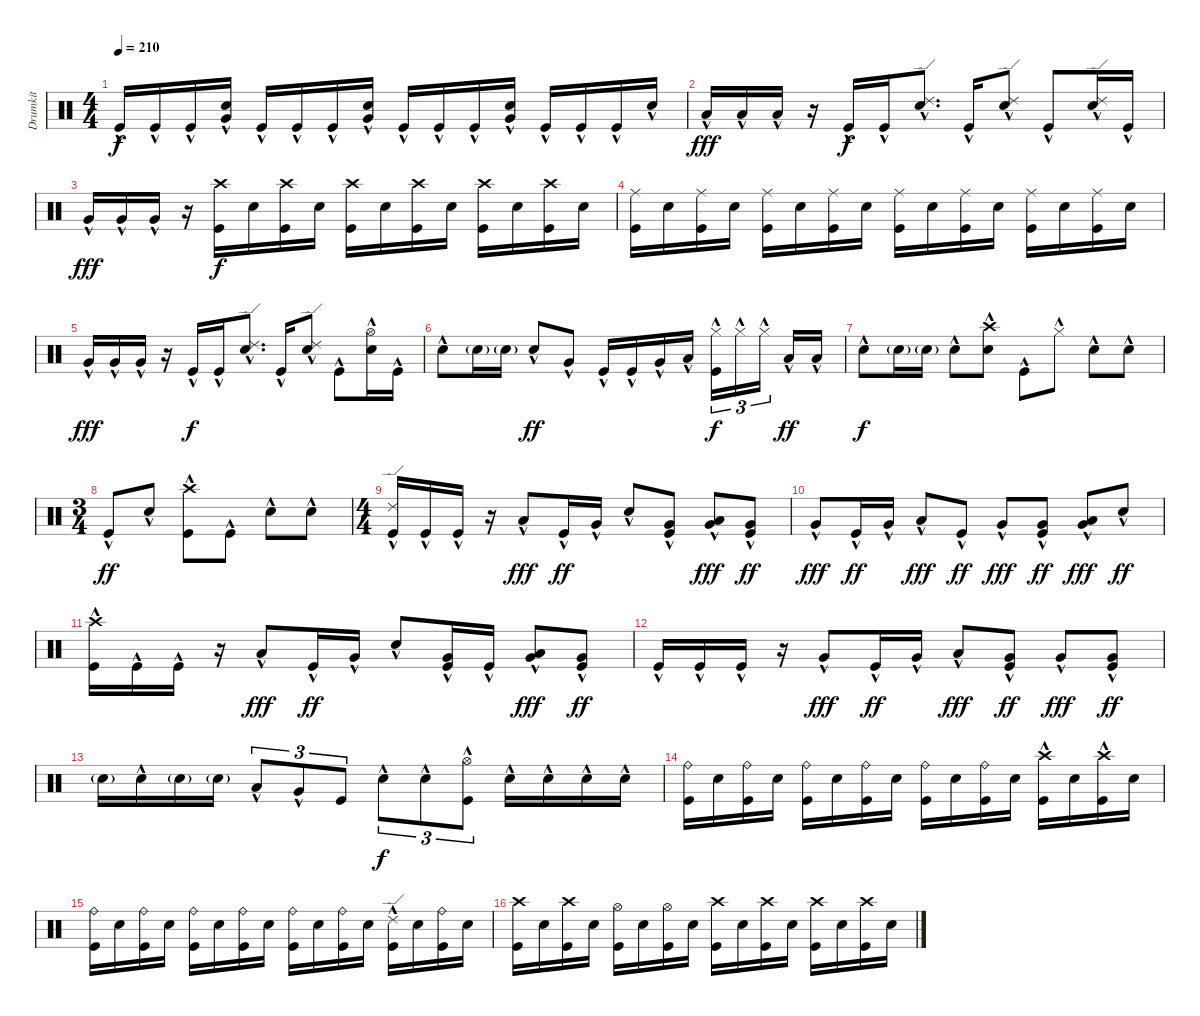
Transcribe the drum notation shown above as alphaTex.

\track ("Drumkit" "Drumkit") {instrument percussion}
\staff {score}
\articulation defaults
\ts (4 4)
\tempo 210
\clef neutral
\ks c "Kick (hit)"{hac}.16{dy f} "Kick (hit)"{hac}.16 "Kick (hit)"{hac}.16
("Snare (hit) 2"{hac} "Very Low Tom (hit)"{hac}).16 "Kick (hit)"{hac}.16 "Kick (hit)"{hac}.16 "Kick (hit)"{hac}.16 ("Snare (hit) 2"{hac} "Very Low Tom (hit)"{hac}).16 "Kick (hit)"{hac}.16 "Kick (hit)"{hac}.16 "Kick (hit)"{hac}.16 ("Snare (hit) 2"{hac} "Very Low Tom (hit)"{hac}).16 "Kick (hit)"{hac}.16 "Kick (hit)"{hac}.16 "Kick (hit)"{hac}.16 "Snare (hit) 2"{hac}.16 |
"Low Tom (hit)"{hac}.16{dy fff} "Low Tom (hit)"{hac}.16 "Low Tom (hit)"{hac}.16 r.16 "Kick (hit)"{hac}.16{dy f} "Kick (hit)"{hac}.16 ("Snare (hit) 2"{hac} "Ride (edge) 2"{hac}).8{d} "Kick (hit)"{hac}.16 ("Snare (hit) 2"{hac} "Ride (edge) 2"{hac}).8 "Kick (hit)"{hac}.8 ("Snare (hit) 2"{hac} "Ride (edge) 2"{hac}).16 "Kick (hit)"{hac}.16 |
"Very Low Tom (hit)"{hac}.16{dy fff} "Very Low Tom (hit)"{hac}.16 "Very Low Tom (hit)"{hac}.16 r.16 ("Kick (hit)" "Crash high (hit)").16{dy f} "Snare (hit) 2".16 ("Kick (hit)" "Crash high (hit)").16 "Snare (hit) 2".16 ("Kick (hit)" "Crash high (hit)").16 "Snare (hit) 2".16 ("Kick (hit)" "Crash high (hit)").16 "Snare (hit) 2".16 ("Kick (hit)" "Crash high (hit)").16 "Snare (hit) 2".16 ("Kick (hit)" "Crash high (hit)").16 "Snare (hit) 2".16 |
("Kick (hit)" "Ride (middle)").16 "Snare (hit) 2".16 ("Kick (hit)" "Ride (middle)").16 "Snare (hit) 2".16 ("Kick (hit)" "Ride (middle)").16 "Snare (hit) 2".16 ("Kick (hit)" "Ride (middle)").16 "Snare (hit) 2".16 ("Kick (hit)" "Ride (middle)").16 "Snare (hit) 2".16 ("Kick (hit)" "Ride (middle)").16 "Snare (hit) 2".16 ("Kick (hit)" "Ride (middle)").16 "Snare (hit) 2".16 ("Kick (hit)" "Ride (middle)").16 "Snare (hit) 2".16 |
"Very Low Tom (hit)"{hac}.16{dy fff} "Very Low Tom (hit)"{hac}.16 "Very Low Tom (hit)"{hac}.16 r.16 "Kick (hit)"{hac}.16{dy f} "Kick (hit)"{hac}.16 ("Snare (hit) 2"{hac} "Ride (edge) 2"{hac}).8{d} "Kick (hit)"{hac}.16 ("Snare (hit) 2"{hac} "Ride (edge) 2"{hac}).8 "Kick (hit)"{hac}.8 ("Snare (hit) 2"{hac} "Hi-Hat (open)"{hac}).16 "Kick (hit)"{hac}.16 |
"Snare (hit) 2"{hac}.8 "Snare (hit) 2"{g}.16 "Snare (hit) 2"{g}.16 "Snare (hit) 2"{hac}.8{dy ff} "Very Low Tom (hit)"{hac}.8 "Kick (hit)"{hac}.16 "Kick (hit)"{hac}.16 "Very Low Tom (hit)"{hac}.16 "Low Tom (hit)"{hac}.16 ("Hi-Hat (closed)"{hac} "Kick (hit)"{hac}).16{tu (3 2) dy f} "Hi-Hat (closed)"{hac}.16{tu (3 2)} "Hi-Hat (closed)"{hac}.16{tu (3 2)} "Low Tom (hit)"{hac}.16{dy ff} "Low Tom (hit)"{hac}.16 |
"Snare (hit) 2"{hac}.8{dy f} "Snare (hit) 2"{g}.16 "Snare (hit) 2"{g}.16 "Snare (hit) 2"{hac}.8 ("Snare (hit) 2"{hac} "Crash high (hit)"{hac}).8 "Kick (hit)"{hac}.8 "Hi-Hat (closed)"{hac}.8 "Snare (hit) 2"{hac}.8 "Snare (hit) 2"{hac}.8 |
\ts (3 4)
"Kick (hit)"{hac}.8{dy ff} "Snare (hit) 2"{hac}.8 ("Kick (hit)"{hac} "Crash high (hit)"{hac}).8 "Kick (hit)"{hac}.8 "Snare (hit) 2"{hac}.8 "Snare (hit) 2"{hac}.8 |
\ts (4 4)
("Kick (hit)"{hac} "Ride (edge) 2"{hac}).16 "Kick (hit)"{hac}.16 "Kick (hit)"{hac}.16 r.16 "Low Tom (hit)"{hac}.8{dy fff} "Kick (hit)"{hac}.16{dy ff} "Very Low Tom (hit)"{hac}.16 "Snare (hit) 2"{hac}.8 ("Kick (hit)"{hac} "Very Low Tom (hit)"{hac}).8 ("Low Tom (hit)"{hac} "Very Low Tom (hit)"{hac}).8{dy fff} ("Kick (hit)"{hac} "Very Low Tom (hit)"{hac}).8{dy ff} |
"Very Low Tom (hit)"{hac}.8{dy fff} "Kick (hit)"{hac}.16{dy ff} "Very Low Tom (hit)"{hac}.16 "Low Tom (hit)"{hac}.8{dy fff} "Kick (hit)"{hac}.8{dy ff} "Very Low Tom (hit)"{hac}.8{dy fff} ("Kick (hit)"{hac} "Very Low Tom (hit)"{hac}).8{dy ff} ("Low Tom (hit)"{hac} "Very Low Tom (hit)"{hac}).8{dy fff} "Snare (hit) 2"{hac}.8{dy ff} |
("Kick (hit)"{hac} "Crash high (hit)"{hac}).16 "Kick (hit)"{hac}.16 "Kick (hit)"{hac}.16 r.16 "Low Tom (hit)"{hac}.8{dy fff} "Kick (hit)"{hac}.16{dy ff} "Very Low Tom (hit)"{hac}.16 "Snare (hit) 2"{hac}.8 ("Kick (hit)"{hac} "Very Low Tom (hit)"{hac}).16 "Kick (hit)"{hac}.16 ("Low Tom (hit)"{hac} "Very Low Tom (hit)"{hac}).8{dy fff} ("Kick (hit)"{hac} "Very Low Tom (hit)"{hac}).8{dy ff} |
"Kick (hit)"{hac}.16 "Kick (hit)"{hac}.16 "Kick (hit)"{hac}.16 r.16 "Very Low Tom (hit)"{hac}.8{dy fff} "Kick (hit)"{hac}.16{dy ff} "Very Low Tom (hit)"{hac}.16 "Low Tom (hit)"{hac}.8{dy fff} ("Kick (hit)"{hac} "Very Low Tom (hit)"{hac}).8{dy ff} "Very Low Tom (hit)"{hac}.8{dy fff} ("Kick (hit)"{hac} "Very Low Tom (hit)"{hac}).8{dy ff} |
"Snare (hit) 2"{g}.16 "Snare (hit) 2"{hac}.16 "Snare (hit) 2"{g}.16 "Snare (hit) 2"{g}.16 "Low Tom (hit)"{hac}.8{tu (3 2)} "Very Low Tom (hit)"{hac}.8{tu (3 2)} "Kick (hit)".8{tu (3 2)} "Snare (hit) 2"{hac}.8{tu (3 2) dy f} "Snare (hit) 2"{hac}.8{tu (3 2)} ("Hi-Hat (open)"{hac} "Kick (hit)"{hac}).8{tu (3 2)} "Snare (hit) 2"{hac}.16 "Snare (hit) 2"{hac}.16 "Snare (hit) 2"{hac}.16 "Snare (hit) 2"{hac}.16 |
("Kick (hit)" "Ride (bell)").16 "Snare (hit) 2".16 ("Kick (hit)" "Ride (bell)").16 "Snare (hit) 2".16 ("Kick (hit)" "Ride (bell)").16 "Snare (hit) 2".16 ("Kick (hit)" "Ride (bell)").16 "Snare (hit) 2".16 ("Kick (hit)" "Ride (bell)").16 "Snare (hit) 2".16 ("Kick (hit)" "Ride (bell)").16 "Snare (hit) 2".16 ("Kick (hit)" "Crash high (hit)"{hac}).16 "Snare (hit) 2".16 ("Kick (hit)" "Crash high (hit)"{hac}).16 "Snare (hit) 2".16 |
("Kick (hit)" "Ride (bell)").16 "Snare (hit) 2".16 ("Kick (hit)" "Ride (bell)").16 "Snare (hit) 2".16 ("Kick (hit)" "Ride (bell)").16 "Snare (hit) 2".16 ("Kick (hit)" "Ride (bell)").16 "Snare (hit) 2".16 ("Kick (hit)" "Ride (bell)").16 "Snare (hit) 2".16 ("Kick (hit)" "Ride (bell)").16 "Snare (hit) 2".16 ("Kick (hit)" "Ride (edge) 2"{hac}).16 "Snare (hit) 2".16 ("Ride (bell)" "Kick (hit)").16 "Snare (hit) 2".16 |
("Kick (hit)" "Crash high (hit)").16 "Snare (hit) 2".16 ("Kick (hit)" "Crash high (hit)").16 "Snare (hit) 2".16 ("Kick (hit)" "Hi-Hat (open)").16 "Snare (hit) 2".16 ("Kick (hit)" "Hi-Hat (open)").16 "Snare (hit) 2".16 ("Kick (hit)" "Crash high (hit)").16 "Snare (hit) 2".16 ("Kick (hit)" "Crash high (hit)").16 "Snare (hit) 2".16 ("Kick (hit)" "Crash high (hit)").16 "Snare (hit) 2".16 ("Kick (hit)" "Crash high (hit)").16 "Snare (hit) 2".16
